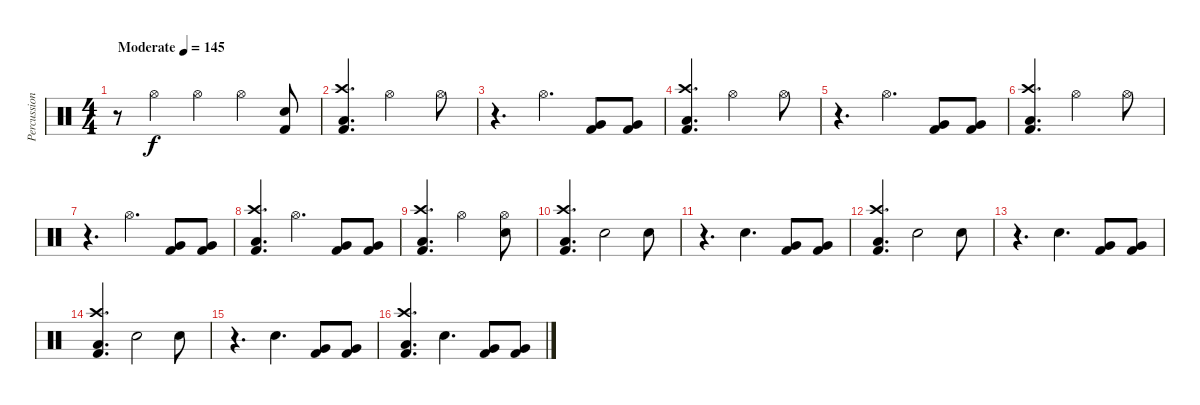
\track ("Percussion" "Percussion") {instrument percussion}
\staff {score}
\articulation defaults
\ts (4 4)
\tempo (145 "Moderate")
\clef neutral
\ks c
r.8{dy f} "Hi-Hat (open)".4 "Hi-Hat (open)".4 "Hi-Hat (open)".4 ("Electric Snare (hit)" "Kick (hit) 2").8 |
("Crash high (hit)" "Low Floor Tom (hit)" "Kick (hit) 2").4{d} "Hi-Hat (open)".2 "Hi-Hat (open)".8 |
r.4{d} "Hi-Hat (open)".4{d} ("Very Low Tom (hit)" "Kick (hit) 2").8 ("Very Low Tom (hit)" "Kick (hit) 2").8 |
("Crash high (hit)" "Low Floor Tom (hit)" "Kick (hit) 2").4{d} "Hi-Hat (open)".2 "Hi-Hat (open)".8 |
r.4{d} "Hi-Hat (open)".4{d} ("Very Low Tom (hit)" "Kick (hit) 2").8 ("Very Low Tom (hit)" "Kick (hit) 2").8 |
("Crash high (hit)" "Low Floor Tom (hit)" "Kick (hit) 2").4{d} "Hi-Hat (open)".2 "Hi-Hat (open)".8 |
r.4{d} "Hi-Hat (open)".4{d} ("Very Low Tom (hit)" "Kick (hit) 2").8 ("Very Low Tom (hit)" "Kick (hit) 2").8 |
("Crash high (hit)" "Low Floor Tom (hit)" "Kick (hit) 2").4{d} "Hi-Hat (open)".4{d} ("Very Low Tom (hit)" "Kick (hit) 2").8 ("Very Low Tom (hit)" "Kick (hit) 2").8 |
("Crash high (hit)" "Low Floor Tom (hit)" "Kick (hit) 2").4{d} "Hi-Hat (open)".2 ("Hi-Hat (open)" "Electric Snare (hit)").8 |
("Crash high (hit)" "Low Floor Tom (hit)" "Kick (hit) 2").4{d} "Electric Snare (hit)".2 "Electric Snare (hit)".8 |
r.4{d} "Electric Snare (hit)".4{d} ("Very Low Tom (hit)" "Kick (hit) 2").8 ("Very Low Tom (hit)" "Kick (hit) 2").8 |
("Crash high (hit)" "Low Floor Tom (hit)" "Kick (hit) 2").4{d} "Electric Snare (hit)".2 "Electric Snare (hit)".8 |
r.4{d} "Electric Snare (hit)".4{d} ("Very Low Tom (hit)" "Kick (hit) 2").8 ("Very Low Tom (hit)" "Kick (hit) 2").8 |
("Crash high (hit)" "Low Floor Tom (hit)" "Kick (hit) 2").4{d} "Electric Snare (hit)".2 "Electric Snare (hit)".8 |
r.4{d} "Electric Snare (hit)".4{d} ("Very Low Tom (hit)" "Kick (hit) 2").8 ("Very Low Tom (hit)" "Kick (hit) 2").8 |
("Crash high (hit)" "Low Floor Tom (hit)" "Kick (hit) 2").4{d} "Electric Snare (hit)".4{d} ("Very Low Tom (hit)" "Kick (hit) 2").8 ("Very Low Tom (hit)" "Kick (hit) 2").8
